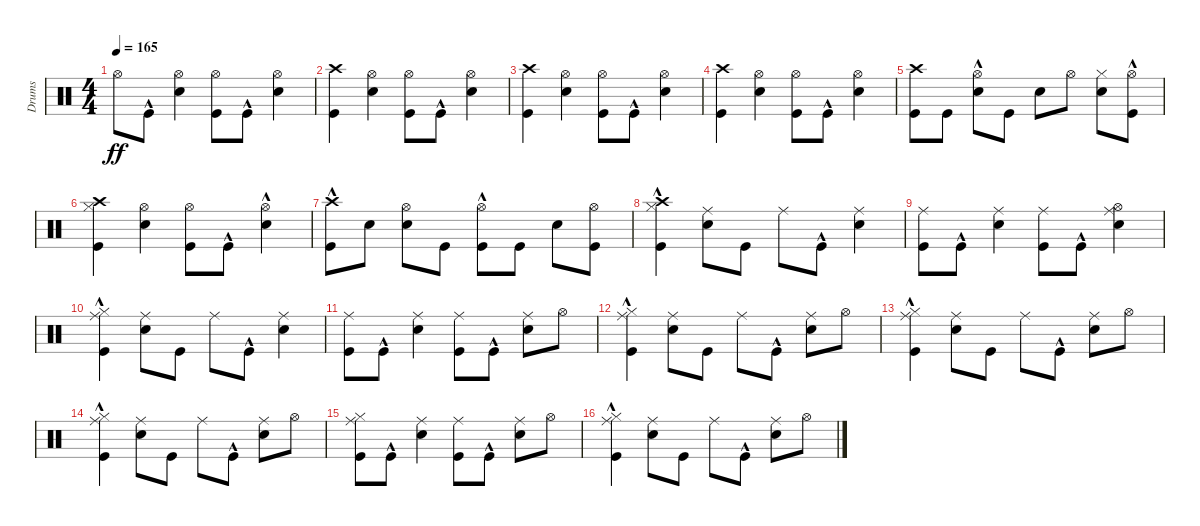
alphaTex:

\track ("Drums" "Drums") {instrument percussion}
\staff {score}
\articulation defaults
\ts (4 4)
\tempo 165
\clef neutral
\ks c "Hi-Hat (open)".8{dy ff} "Kick (hit)"{hac}.8
("Snare (hit) 2" "Hi-Hat (open)").4 ("Kick (hit)" "Hi-Hat (open)").8 "Kick (hit)"{hac}.8 ("Snare (hit) 2" "Hi-Hat (open)").4 |
("Kick (hit)" "Crash high (hit)").4 ("Snare (hit) 2" "Hi-Hat (open)").4 ("Kick (hit)" "Hi-Hat (open)").8 "Kick (hit)"{hac}.8 ("Snare (hit) 2" "Hi-Hat (open)").4 |
("Kick (hit)" "Crash high (hit)").4 ("Snare (hit) 2" "Hi-Hat (open)").4 ("Kick (hit)" "Hi-Hat (open)").8 "Kick (hit)"{hac}.8 ("Snare (hit) 2" "Hi-Hat (open)").4 |
("Kick (hit)" "Crash high (hit)").4 ("Snare (hit) 2" "Hi-Hat (open)").4 ("Kick (hit)" "Hi-Hat (open)").8 "Kick (hit)"{hac}.8 ("Snare (hit) 2" "Hi-Hat (open)").4 |
("Kick (hit)" "Crash high (hit)").8 "Kick (hit)".8 ("Snare (hit) 2" "Hi-Hat (open)"{hac}).8 "Kick (hit)".8 "Snare (hit) 2".8 "Hi-Hat (open)".8 ("Snare (hit) 2" "Hi-Hat (closed)").8 ("Kick (hit)" "Hi-Hat (open)"{hac}).8 |
("Kick (hit)" "Hi-Hat (closed)" "Crash high (hit)").4 ("Snare (hit) 2" "Hi-Hat (open)").4 ("Kick (hit)" "Hi-Hat (open)").8 "Kick (hit)"{hac}.8 ("Snare (hit) 2"{hac} "Hi-Hat (open)").4 |
("Kick (hit)"{hac} "Crash high (hit)").8 "Snare (hit) 2".8 ("Snare (hit) 2" "Hi-Hat (open)").8 "Kick (hit)".8 ("Kick (hit)" "Hi-Hat (open)"{hac}).8 "Kick (hit)".8 "Snare (hit) 2".8 ("Kick (hit)" "Hi-Hat (open)").8 |
("Kick (hit)"{hac} "Hi-Hat (closed)" "Crash high (hit)").4 ("Snare (hit) 2" "Ride (middle)").8 "Kick (hit)".8 "Ride (middle)".8 "Kick (hit)"{hac}.8 ("Snare (hit) 2" "Ride (middle)").4 |
("Kick (hit)" "Ride (middle)").8 "Kick (hit)"{hac}.8 ("Snare (hit) 2" "Ride (middle)").4 ("Kick (hit)" "Ride (middle)").8 "Kick (hit)"{hac}.8 ("Snare (hit) 2" "Hi-Hat (open)" "Ride (middle)").4 |
("Kick (hit)"{hac} "Hi-Hat (closed)" "Ride (middle)").4 ("Snare (hit) 2" "Ride (middle)").8 "Kick (hit)".8 "Ride (middle)".8 "Kick (hit)"{hac}.8 ("Snare (hit) 2" "Ride (middle)").4 |
("Kick (hit)" "Ride (middle)").8 "Kick (hit)"{hac}.8 ("Snare (hit) 2" "Ride (middle)").4 ("Kick (hit)" "Ride (middle)").8 "Kick (hit)"{hac}.8 ("Snare (hit) 2" "Ride (middle)").8 "Hi-Hat (open)".8 |
("Kick (hit)"{hac} "Hi-Hat (closed)" "Ride (middle)").4 ("Snare (hit) 2" "Ride (middle)").8 "Kick (hit)".8 "Ride (middle)".8 "Kick (hit)"{hac}.8 ("Snare (hit) 2" "Ride (middle)").8 "Hi-Hat (open)".8 |
("Kick (hit)"{hac} "Hi-Hat (closed)" "Ride (middle)").4 ("Snare (hit) 2" "Ride (middle)").8 "Kick (hit)".8 "Ride (middle)".8 "Kick (hit)"{hac}.8 ("Snare (hit) 2" "Ride (middle)").8 "Hi-Hat (open)".8 |
("Kick (hit)"{hac} "Hi-Hat (closed)" "Ride (middle)").4 ("Snare (hit) 2" "Ride (middle)").8 "Kick (hit)".8 "Ride (middle)".8 "Kick (hit)"{hac}.8 ("Snare (hit) 2" "Ride (middle)").8 "Hi-Hat (open)".8 |
("Kick (hit)" "Hi-Hat (closed)" "Ride (middle)").8 "Kick (hit)"{hac}.8 ("Snare (hit) 2" "Ride (middle)").4 ("Kick (hit)" "Ride (middle)").8 "Kick (hit)"{hac}.8 ("Snare (hit) 2" "Ride (middle)").8 "Hi-Hat (open)".8 |
("Kick (hit)"{hac} "Hi-Hat (closed)" "Ride (middle)").4 ("Snare (hit) 2" "Ride (middle)").8 "Kick (hit)".8 "Ride (middle)".8 "Kick (hit)"{hac}.8 ("Snare (hit) 2" "Ride (middle)").8 "Hi-Hat (open)".8
